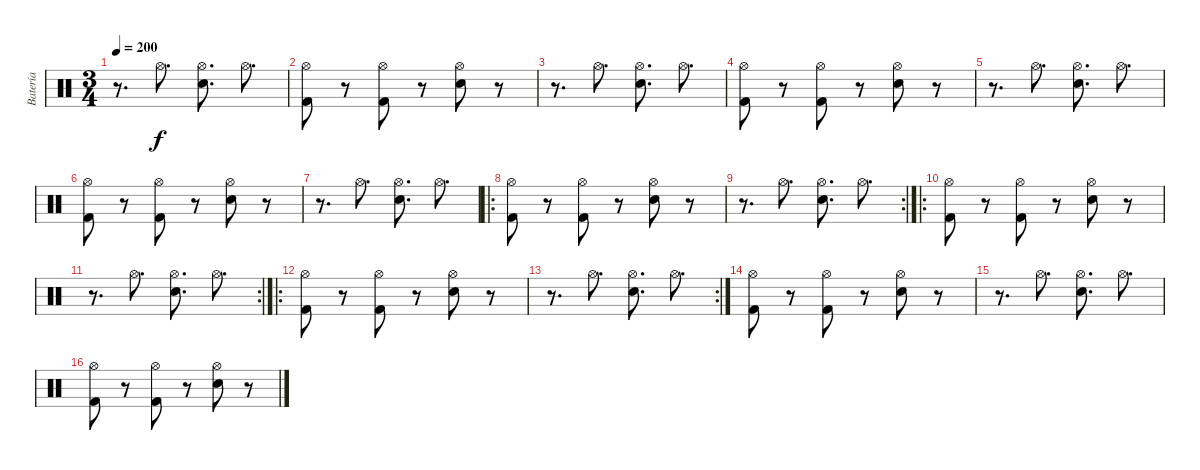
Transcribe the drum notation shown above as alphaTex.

\track ("Batería" "Batería") {instrument percussion}
\staff {score}
\articulation defaults
\ts (3 4)
\tempo 200
\clef neutral
\ks c
r.8{d dy f} "Hi-Hat (open)".8{d} ("Snare (hit) 2" "Hi-Hat (open)").8{d} "Hi-Hat (open)".8{d} |
("Kick (hit) 2" "Hi-Hat (open)").8 r.8 ("Kick (hit) 2" "Hi-Hat (open)").8 r.8 ("Snare (hit) 2" "Hi-Hat (open)").8 r.8 |
r.8{d} "Hi-Hat (open)".8{d} ("Snare (hit) 2" "Hi-Hat (open)").8{d} "Hi-Hat (open)".8{d} |
("Kick (hit) 2" "Hi-Hat (open)").8 r.8 ("Kick (hit) 2" "Hi-Hat (open)").8 r.8 ("Snare (hit) 2" "Hi-Hat (open)").8 r.8 |
r.8{d} "Hi-Hat (open)".8{d} ("Snare (hit) 2" "Hi-Hat (open)").8{d} "Hi-Hat (open)".8{d} |
("Kick (hit) 2" "Hi-Hat (open)").8 r.8 ("Kick (hit) 2" "Hi-Hat (open)").8 r.8 ("Snare (hit) 2" "Hi-Hat (open)").8 r.8 |
r.8{d} "Hi-Hat (open)".8{d} ("Snare (hit) 2" "Hi-Hat (open)").8{d} "Hi-Hat (open)".8{d} |
\ro
("Kick (hit) 2" "Hi-Hat (open)").8 r.8 ("Kick (hit) 2" "Hi-Hat (open)").8 r.8 ("Snare (hit) 2" "Hi-Hat (open)").8 r.8 |
\rc 2
r.8{d} "Hi-Hat (open)".8{d} ("Snare (hit) 2" "Hi-Hat (open)").8{d} "Hi-Hat (open)".8{d} |
\ro
("Kick (hit) 2" "Hi-Hat (open)").8 r.8 ("Kick (hit) 2" "Hi-Hat (open)").8 r.8 ("Snare (hit) 2" "Hi-Hat (open)").8 r.8 |
\rc 2
r.8{d} "Hi-Hat (open)".8{d} ("Snare (hit) 2" "Hi-Hat (open)").8{d} "Hi-Hat (open)".8{d} |
\ro
("Kick (hit) 2" "Hi-Hat (open)").8 r.8 ("Kick (hit) 2" "Hi-Hat (open)").8 r.8 ("Snare (hit) 2" "Hi-Hat (open)").8 r.8 |
\rc 2
r.8{d} "Hi-Hat (open)".8{d} ("Snare (hit) 2" "Hi-Hat (open)").8{d} "Hi-Hat (open)".8{d} |
("Kick (hit) 2" "Hi-Hat (open)").8 r.8 ("Kick (hit) 2" "Hi-Hat (open)").8 r.8 ("Snare (hit) 2" "Hi-Hat (open)").8 r.8 |
r.8{d} "Hi-Hat (open)".8{d} ("Snare (hit) 2" "Hi-Hat (open)").8{d} "Hi-Hat (open)".8{d} |
("Kick (hit) 2" "Hi-Hat (open)").8 r.8 ("Kick (hit) 2" "Hi-Hat (open)").8 r.8 ("Snare (hit) 2" "Hi-Hat (open)").8 r.8
